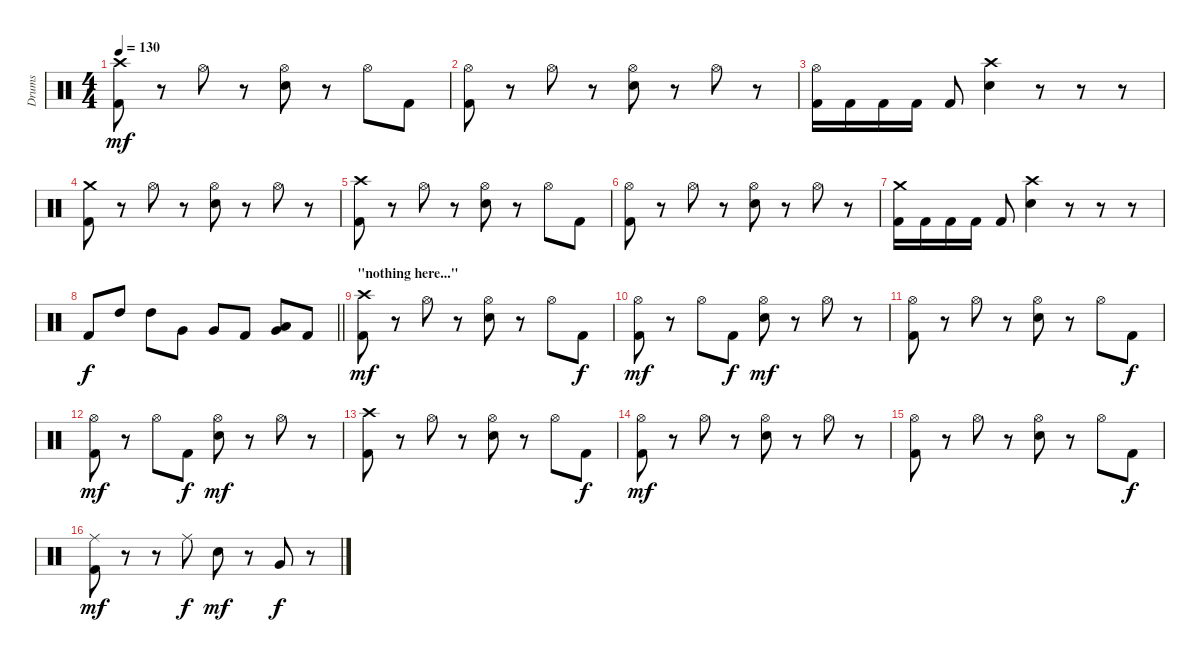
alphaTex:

\track ("Drums" "Drums") {instrument percussion}
\staff {score}
\articulation defaults
\ts (4 4)
\tempo 130
\clef neutral
\ks c
("Crash high (hit)" "Kick (hit) 2").8{dy mf} r.8 "Hi-Hat (open)".8 r.8 ("Hi-Hat (open)" "Electric Snare (hit)").8 r.8 "Hi-Hat (open)".8 "Kick (hit) 2".8 |
("Hi-Hat (open)" "Kick (hit) 2").8 r.8 "Hi-Hat (open)".8 r.8 ("Hi-Hat (open)" "Electric Snare (hit)").8 r.8 "Hi-Hat (open)".8 r.8 |
("Hi-Hat (open)" "Kick (hit) 2").16 "Kick (hit) 2".16 "Kick (hit) 2".16 "Kick (hit) 2".16 "Kick (hit) 2".8 ("Crash high (hit)" "Electric Snare (hit)").4 r.8 r.8 r.8 |
("Crash medium (hit)" "Kick (hit) 2").8 r.8 "Hi-Hat (open)".8 r.8 ("Hi-Hat (open)" "Electric Snare (hit)").8 r.8 "Hi-Hat (open)".8 r.8 |
("Crash high (hit)" "Kick (hit) 2").8 r.8 "Hi-Hat (open)".8 r.8 ("Hi-Hat (open)" "Electric Snare (hit)").8 r.8 "Hi-Hat (open)".8 "Kick (hit) 2".8 |
("Hi-Hat (open)" "Kick (hit) 2").8 r.8 "Hi-Hat (open)".8 r.8 ("Hi-Hat (open)" "Electric Snare (hit)").8 r.8 "Hi-Hat (open)".8 r.8 |
("Crash medium (hit)" "Kick (hit) 2").16 "Kick (hit) 2".16 "Kick (hit) 2".16 "Kick (hit) 2".16 "Kick (hit) 2".8 ("Crash high (hit)" "Electric Snare (hit)").4 r.8 r.8 r.8 |
\barLineRight lightlight "Kick (hit) 2".8{dy f} "High Tom (hit)".8 "High Tom (hit)".8 "Very Low Tom (hit)".8 "Very Low Tom (hit)".8 "Kick (hit) 2".8
("Very Low Tom (hit)" "Low Floor Tom (hit)").8 "Kick (hit) 2".8 |
\section ("" "\"nothing here...\"")
("Crash high (hit)" "Kick (hit) 2").8{dy mf} r.8 "Hi-Hat (open)".8 r.8 ("Hi-Hat (open)" "Electric Snare (hit)").8 r.8 "Hi-Hat (open)".8 "Kick (hit) 2".8{dy f} |
("Hi-Hat (open)" "Kick (hit) 2").8{dy mf} r.8 "Hi-Hat (open)".8 "Kick (hit) 2".8{dy f} ("Hi-Hat (open)" "Electric Snare (hit)").8{dy mf} r.8 "Hi-Hat (open)".8 r.8 |
("Hi-Hat (open)" "Kick (hit) 2").8 r.8 "Hi-Hat (open)".8 r.8 ("Hi-Hat (open)" "Electric Snare (hit)").8 r.8 "Hi-Hat (open)".8 "Kick (hit) 2".8{dy f} |
("Hi-Hat (open)" "Kick (hit) 2").8{dy mf} r.8 "Hi-Hat (open)".8 "Kick (hit) 2".8{dy f} ("Hi-Hat (open)" "Electric Snare (hit)").8{dy mf} r.8 "Hi-Hat (open)".8 r.8 |
("Crash high (hit)" "Kick (hit) 2").8 r.8 "Hi-Hat (open)".8 r.8 ("Hi-Hat (open)" "Electric Snare (hit)").8 r.8 "Hi-Hat (open)".8 "Kick (hit) 2".8{dy f} |
("Hi-Hat (open)" "Kick (hit) 2").8{dy mf} r.8 "Hi-Hat (open)".8 r.8 ("Hi-Hat (open)" "Electric Snare (hit)").8 r.8 "Hi-Hat (open)".8 r.8 |
("Hi-Hat (open)" "Kick (hit) 2").8 r.8 "Hi-Hat (open)".8 r.8 ("Hi-Hat (open)" "Electric Snare (hit)").8 r.8 "Hi-Hat (open)".8 "Kick (hit) 2".8{dy f} |
("Ride (middle)" "Kick (hit) 2").8{dy mf} r.8 r.8 "Ride (middle)".8{dy f} "Electric Snare (hit)".8{dy mf} r.8 "Very Low Tom (hit)".8{dy f} r.8
